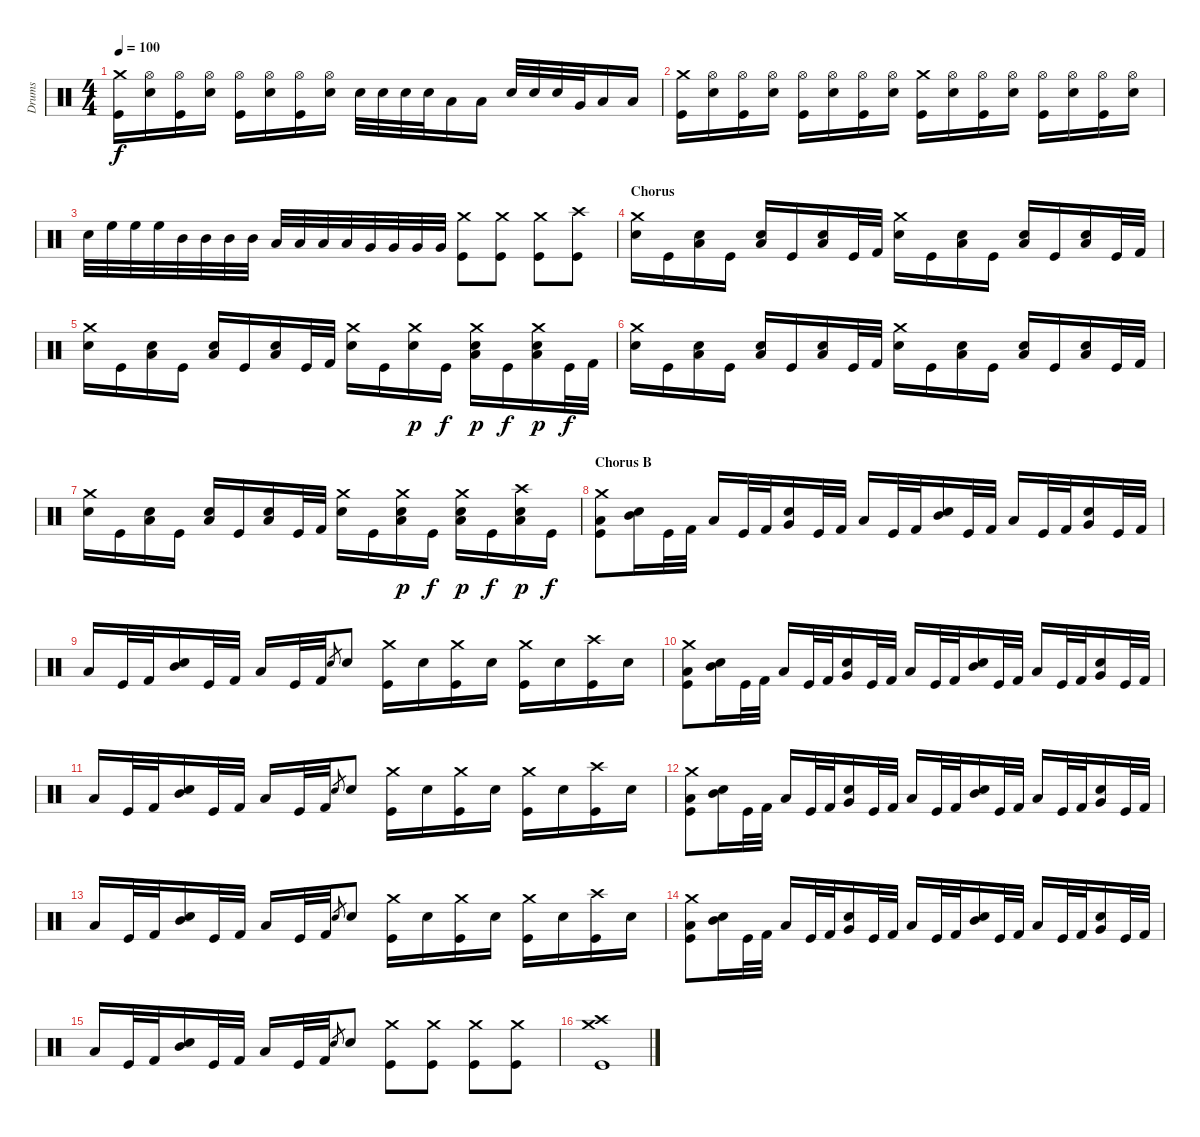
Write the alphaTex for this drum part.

\track ("Drums" "Drums") {instrument percussion}
\staff {score}
\articulation defaults
\ts (4 4)
\tempo 100
\clef neutral
\ks c
("Crash medium (hit)" "Kick (hit)").16{dy f} ("Hi-Hat (open)" "Electric Snare (hit)").16 ("Hi-Hat (open)" "Kick (hit)").16 ("Hi-Hat (open)" "Electric Snare (hit)").16 ("Hi-Hat (open)" "Kick (hit)").16 ("Hi-Hat (open)" "Electric Snare (hit)").16 ("Hi-Hat (open)" "Kick (hit)").16 ("Hi-Hat (open)" "Electric Snare (hit)").16 "Electric Snare (hit)".32 "Electric Snare (hit)".32 "Electric Snare (hit)".32 "Electric Snare (hit)".32 "Low Floor Tom (hit)".16 "Low Floor Tom (hit)".16 "Electric Snare (hit)".32 "Electric Snare (hit)".32 "Electric Snare (hit)".32 "Very Low Tom (hit)".32 "Low Floor Tom (hit)".16 "Low Floor Tom (hit)".16 |
("Crash medium (hit)" "Kick (hit)").16 ("Hi-Hat (open)" "Electric Snare (hit)").16 ("Hi-Hat (open)" "Kick (hit)").16 ("Hi-Hat (open)" "Electric Snare (hit)").16 ("Hi-Hat (open)" "Kick (hit)").16 ("Hi-Hat (open)" "Electric Snare (hit)").16 ("Hi-Hat (open)" "Kick (hit)").16 ("Hi-Hat (open)" "Electric Snare (hit)").16 ("Crash medium (hit)" "Kick (hit)").16 ("Hi-Hat (open)" "Electric Snare (hit)").16 ("Hi-Hat (open)" "Kick (hit)").16 ("Hi-Hat (open)" "Electric Snare (hit)").16 ("Hi-Hat (open)" "Kick (hit)").16 ("Hi-Hat (open)" "Electric Snare (hit)").16 ("Hi-Hat (open)" "Kick (hit)").16 ("Hi-Hat (open)" "Electric Snare (hit)").16 |
"Electric Snare (hit)".32 "High Floor Tom (hit)".32 "High Floor Tom (hit)".32 "High Floor Tom (hit)".32 "Mid Tom (hit)".32 "Mid Tom (hit)".32 "Mid Tom (hit)".32 "Mid Tom (hit)".32 "Low Tom (hit)".32 "Low Tom (hit)".32 "Low Tom (hit)".32 "Low Tom (hit)".32 "Very Low Tom (hit)".32 "Very Low Tom (hit)".32 "Very Low Tom (hit)".32 "Very Low Tom (hit)".32 ("Crash medium (hit)" "Kick (hit)").8 ("Crash medium (hit)" "Kick (hit)").8 ("Crash medium (hit)" "Kick (hit)").8 ("Crash high (hit)" "Kick (hit)").8 |
\section ("" "Chorus")
("Crash medium (hit)" "Electric Snare (hit)").16 "Kick (hit)".16 ("Electric Snare (hit)" "Low Tom (hit)").16 "Kick (hit)".16 ("Electric Snare (hit)" "Low Tom (hit)").16 "Kick (hit)".16 ("Electric Snare (hit)" "Low Tom (hit)").16 "Kick (hit)".32 "Kick (hit) 2".32 ("Crash medium (hit)" "Electric Snare (hit)").16 "Kick (hit)".16 ("Electric Snare (hit)" "Low Tom (hit)").16 "Kick (hit)".16 ("Electric Snare (hit)" "Low Tom (hit)").16 "Kick (hit)".16 ("Electric Snare (hit)" "Low Tom (hit)").16 "Kick (hit)".32 "Kick (hit) 2".32 |
("Crash medium (hit)" "Electric Snare (hit)").16 "Kick (hit)".16 ("Electric Snare (hit)" "Low Tom (hit)").16 "Kick (hit)".16 ("Electric Snare (hit)" "Low Tom (hit)").16 "Kick (hit)".16 ("Electric Snare (hit)" "Low Tom (hit)").16 "Kick (hit)".32 "Kick (hit) 2".32 ("Crash medium (hit)" "Electric Snare (hit)").16 "Kick (hit)".16 ("Crash medium (hit)" "Electric Snare (hit)").16{dy p} "Kick (hit)".16{dy f} ("Crash medium (hit)" "Electric Snare (hit)" "Low Tom (hit)").16{dy p} "Kick (hit)".16{dy f} ("Crash medium (hit)" "Electric Snare (hit)" "Low Tom (hit)").16{dy p} "Kick (hit)".32{dy f} "Kick (hit) 2".32 |
("Crash medium (hit)" "Electric Snare (hit)").16 "Kick (hit)".16 ("Electric Snare (hit)" "Low Tom (hit)").16 "Kick (hit)".16 ("Electric Snare (hit)" "Low Tom (hit)").16 "Kick (hit)".16 ("Electric Snare (hit)" "Low Tom (hit)").16 "Kick (hit)".32 "Kick (hit) 2".32 ("Crash medium (hit)" "Electric Snare (hit)").16 "Kick (hit)".16 ("Electric Snare (hit)" "Low Tom (hit)").16 "Kick (hit)".16 ("Electric Snare (hit)" "Low Tom (hit)").16 "Kick (hit)".16 ("Electric Snare (hit)" "Low Tom (hit)").16 "Kick (hit)".32 "Kick (hit) 2".32 |
("Crash medium (hit)" "Electric Snare (hit)").16 "Kick (hit)".16 ("Electric Snare (hit)" "Low Tom (hit)").16 "Kick (hit)".16 ("Electric Snare (hit)" "Low Tom (hit)").16 "Kick (hit)".16 ("Electric Snare (hit)" "Low Tom (hit)").16 "Kick (hit)".32 "Kick (hit) 2".32 ("Crash medium (hit)" "Electric Snare (hit)").16 "Kick (hit)".16 ("Crash medium (hit)" "Electric Snare (hit)" "Low Tom (hit)").16{dy p} "Kick (hit)".16{dy f} ("Crash medium (hit)" "Electric Snare (hit)" "Low Tom (hit)").16{dy p} "Kick (hit)".16{dy f} ("Crash high (hit)" "Electric Snare (hit)" "Low Tom (hit)").16{dy p} "Kick (hit)".16{dy f} |
\section ("" "Chorus B")
("Crash medium (hit)" "Low Floor Tom (hit)" "Kick (hit)").8 ("Electric Snare (hit)" "Mid Tom (hit)").16 "Kick (hit)".32 "Kick (hit) 2".32 "Low Tom (hit)".16 "Kick (hit)".32 "Kick (hit) 2".32 ("Electric Snare (hit)" "Very Low Tom (hit)").16 "Kick (hit)".32 "Kick (hit) 2".32 "Low Floor Tom (hit)".16 "Kick (hit)".32 "Kick (hit) 2".32 ("Electric Snare (hit)" "Mid Tom (hit)").16 "Kick (hit)".32 "Kick (hit) 2".32 "Low Tom (hit)".16 "Kick (hit)".32 "Kick (hit) 2".32 ("Electric Snare (hit)" "Very Low Tom (hit)").16 "Kick (hit)".32 "Kick (hit) 2".32 |
"Low Floor Tom (hit)".16 "Kick (hit)".32 "Kick (hit) 2".32 ("Electric Snare (hit)" "Mid Tom (hit)").16 "Kick (hit)".32 "Kick (hit) 2".32 "Low Tom (hit)".16 "Kick (hit)".32 "Kick (hit) 2".32 "Electric Snare (hit)".8{gr} "Electric Snare (hit)".8 ("Crash medium (hit)" "Kick (hit)").16 "Electric Snare (hit)".16 ("Crash medium (hit)" "Kick (hit)").16 "Electric Snare (hit)".16 ("Crash medium (hit)" "Kick (hit)").16 "Electric Snare (hit)".16 ("Crash high (hit)" "Kick (hit)").16 "Electric Snare (hit)".16 |
("Crash medium (hit)" "Low Floor Tom (hit)" "Kick (hit)").8 ("Electric Snare (hit)" "Mid Tom (hit)").16 "Kick (hit)".32 "Kick (hit) 2".32 "Low Tom (hit)".16 "Kick (hit)".32 "Kick (hit) 2".32 ("Electric Snare (hit)" "Very Low Tom (hit)").16 "Kick (hit)".32 "Kick (hit) 2".32 "Low Floor Tom (hit)".16 "Kick (hit)".32 "Kick (hit) 2".32 ("Electric Snare (hit)" "Mid Tom (hit)").16 "Kick (hit)".32 "Kick (hit) 2".32 "Low Tom (hit)".16 "Kick (hit)".32 "Kick (hit) 2".32 ("Electric Snare (hit)" "Very Low Tom (hit)").16 "Kick (hit)".32 "Kick (hit) 2".32 |
"Low Floor Tom (hit)".16 "Kick (hit)".32 "Kick (hit) 2".32 ("Electric Snare (hit)" "Mid Tom (hit)").16 "Kick (hit)".32 "Kick (hit) 2".32 "Low Tom (hit)".16 "Kick (hit)".32 "Kick (hit) 2".32 "Electric Snare (hit)".8{gr} "Electric Snare (hit)".8 ("Crash medium (hit)" "Kick (hit)").16 "Electric Snare (hit)".16 ("Crash medium (hit)" "Kick (hit)").16 "Electric Snare (hit)".16 ("Crash medium (hit)" "Kick (hit)").16 "Electric Snare (hit)".16 ("Crash high (hit)" "Kick (hit)").16 "Electric Snare (hit)".16 |
("Crash medium (hit)" "Low Floor Tom (hit)" "Kick (hit)").8 ("Electric Snare (hit)" "Mid Tom (hit)").16 "Kick (hit)".32 "Kick (hit) 2".32 "Low Tom (hit)".16 "Kick (hit)".32 "Kick (hit) 2".32 ("Electric Snare (hit)" "Very Low Tom (hit)").16 "Kick (hit)".32 "Kick (hit) 2".32 "Low Floor Tom (hit)".16 "Kick (hit)".32 "Kick (hit) 2".32 ("Electric Snare (hit)" "Mid Tom (hit)").16 "Kick (hit)".32 "Kick (hit) 2".32 "Low Tom (hit)".16 "Kick (hit)".32 "Kick (hit) 2".32 ("Electric Snare (hit)" "Very Low Tom (hit)").16 "Kick (hit)".32 "Kick (hit) 2".32 |
"Low Floor Tom (hit)".16 "Kick (hit)".32 "Kick (hit) 2".32 ("Electric Snare (hit)" "Mid Tom (hit)").16 "Kick (hit)".32 "Kick (hit) 2".32 "Low Tom (hit)".16 "Kick (hit)".32 "Kick (hit) 2".32 "Electric Snare (hit)".8{gr} "Electric Snare (hit)".8 ("Crash medium (hit)" "Kick (hit)").16 "Electric Snare (hit)".16 ("Crash medium (hit)" "Kick (hit)").16 "Electric Snare (hit)".16 ("Crash medium (hit)" "Kick (hit)").16 "Electric Snare (hit)".16 ("Crash high (hit)" "Kick (hit)").16 "Electric Snare (hit)".16 |
("Crash medium (hit)" "Low Floor Tom (hit)" "Kick (hit)").8 ("Electric Snare (hit)" "Mid Tom (hit)").16 "Kick (hit)".32 "Kick (hit) 2".32 "Low Tom (hit)".16 "Kick (hit)".32 "Kick (hit) 2".32 ("Electric Snare (hit)" "Very Low Tom (hit)").16 "Kick (hit)".32 "Kick (hit) 2".32 "Low Floor Tom (hit)".16 "Kick (hit)".32 "Kick (hit) 2".32 ("Electric Snare (hit)" "Mid Tom (hit)").16 "Kick (hit)".32 "Kick (hit) 2".32 "Low Tom (hit)".16 "Kick (hit)".32 "Kick (hit) 2".32 ("Electric Snare (hit)" "Very Low Tom (hit)").16 "Kick (hit)".32 "Kick (hit) 2".32 |
"Low Floor Tom (hit)".16 "Kick (hit)".32 "Kick (hit) 2".32 ("Electric Snare (hit)" "Mid Tom (hit)").16 "Kick (hit)".32 "Kick (hit) 2".32 "Low Tom (hit)".16 "Kick (hit)".32 "Kick (hit) 2".32 "Electric Snare (hit)".8{gr} "Electric Snare (hit)".8 ("Crash medium (hit)" "Kick (hit)").8 ("Crash medium (hit)" "Kick (hit)").8 ("Crash medium (hit)" "Kick (hit)").8 ("Crash medium (hit)" "Kick (hit)").8 |
("Crash high (hit)" "Crash medium (hit)" "Kick (hit)").1
